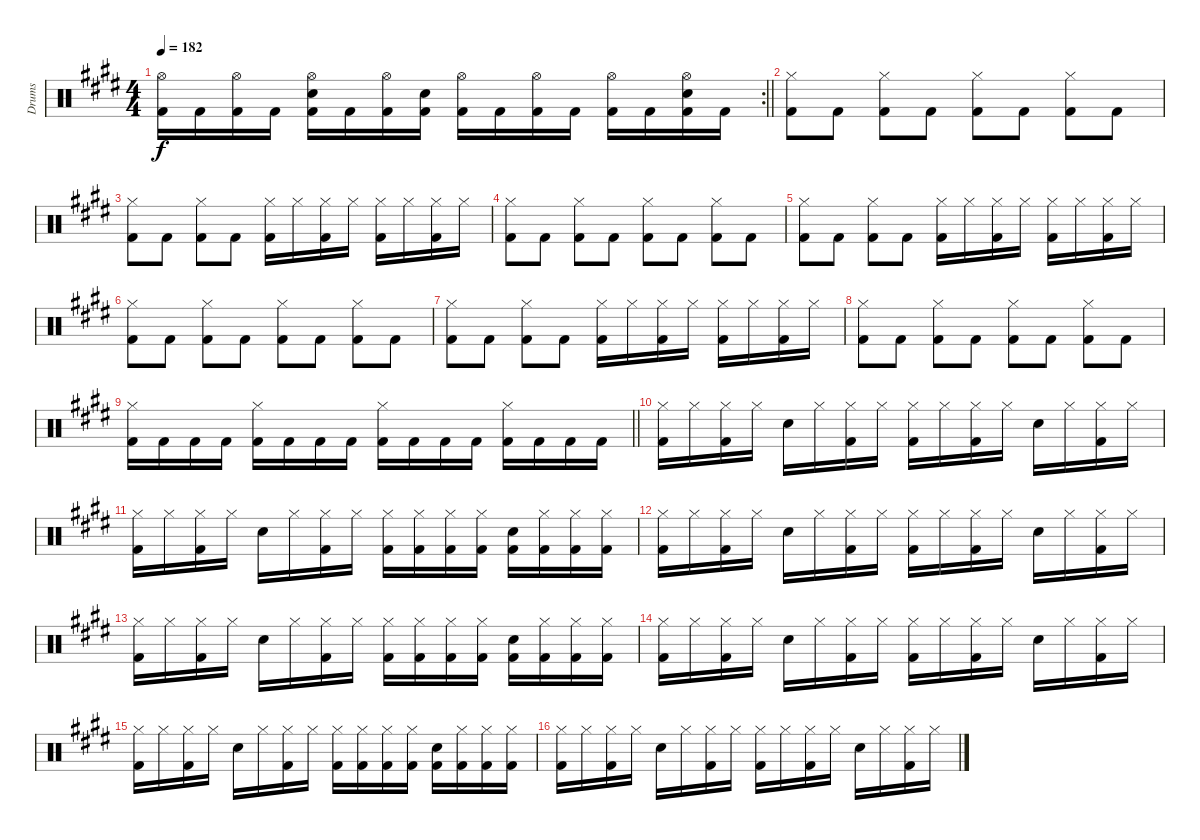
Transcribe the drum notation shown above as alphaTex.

\track ("Drums" "Drums") {instrument percussion}
\staff {score}
\articulation defaults
\rc 2
\ts (4 4)
\tempo 182
\clef neutral
\barLineRight lightlight
\ks c#minor
("Hi-Hat (open)" "Kick (hit) 2").16{dy f} "Kick (hit) 2".16 ("Hi-Hat (open)" "Kick (hit) 2").16 "Kick (hit) 2".16 ("Hi-Hat (open)" "Snare (hit) 2" "Kick (hit) 2").16 "Kick (hit) 2".16 ("Hi-Hat (open)" "Kick (hit) 2").16 ("Snare (hit) 2" "Kick (hit) 2").16 ("Hi-Hat (open)" "Kick (hit) 2").16 "Kick (hit) 2".16 ("Hi-Hat (open)" "Kick (hit) 2").16 "Kick (hit) 2".16 ("Hi-Hat (open)" "Kick (hit) 2").16 "Kick (hit) 2".16 ("Hi-Hat (open)" "Snare (hit) 2" "Kick (hit) 2").16 "Kick (hit) 2".16 |
("Hi-Hat (closed)" "Kick (hit) 2").8 "Kick (hit) 2".8 ("Hi-Hat (closed)" "Kick (hit) 2").8 "Kick (hit) 2".8 ("Hi-Hat (closed)" "Kick (hit) 2").8 "Kick (hit) 2".8 ("Hi-Hat (closed)" "Kick (hit) 2").8 "Kick (hit) 2".8 |
("Hi-Hat (closed)" "Kick (hit) 2").8 "Kick (hit) 2".8 ("Hi-Hat (closed)" "Kick (hit) 2").8 "Kick (hit) 2".8 ("Hi-Hat (closed)" "Kick (hit) 2").16 "Hi-Hat (closed)".16 ("Hi-Hat (closed)" "Kick (hit) 2").16 "Hi-Hat (closed)".16 ("Hi-Hat (closed)" "Kick (hit) 2").16 "Hi-Hat (closed)".16 ("Hi-Hat (closed)" "Kick (hit) 2").16 "Hi-Hat (closed)".16 |
("Hi-Hat (closed)" "Kick (hit) 2").8 "Kick (hit) 2".8 ("Hi-Hat (closed)" "Kick (hit) 2").8 "Kick (hit) 2".8 ("Hi-Hat (closed)" "Kick (hit) 2").8 "Kick (hit) 2".8 ("Hi-Hat (closed)" "Kick (hit) 2").8 "Kick (hit) 2".8 |
("Hi-Hat (closed)" "Kick (hit) 2").8 "Kick (hit) 2".8 ("Hi-Hat (closed)" "Kick (hit) 2").8 "Kick (hit) 2".8 ("Hi-Hat (closed)" "Kick (hit) 2").16 "Hi-Hat (closed)".16 ("Hi-Hat (closed)" "Kick (hit) 2").16 "Hi-Hat (closed)".16 ("Hi-Hat (closed)" "Kick (hit) 2").16 "Hi-Hat (closed)".16 ("Hi-Hat (closed)" "Kick (hit) 2").16 "Hi-Hat (closed)".16 |
("Hi-Hat (closed)" "Kick (hit) 2").8 "Kick (hit) 2".8 ("Hi-Hat (closed)" "Kick (hit) 2").8 "Kick (hit) 2".8 ("Hi-Hat (closed)" "Kick (hit) 2").8 "Kick (hit) 2".8 ("Hi-Hat (closed)" "Kick (hit) 2").8 "Kick (hit) 2".8 |
("Hi-Hat (closed)" "Kick (hit) 2").8 "Kick (hit) 2".8 ("Hi-Hat (closed)" "Kick (hit) 2").8 "Kick (hit) 2".8 ("Hi-Hat (closed)" "Kick (hit) 2").16 "Hi-Hat (closed)".16 ("Hi-Hat (closed)" "Kick (hit) 2").16 "Hi-Hat (closed)".16 ("Hi-Hat (closed)" "Kick (hit) 2").16 "Hi-Hat (closed)".16 ("Hi-Hat (closed)" "Kick (hit) 2").16 "Hi-Hat (closed)".16 |
("Hi-Hat (closed)" "Kick (hit) 2").8 "Kick (hit) 2".8 ("Hi-Hat (closed)" "Kick (hit) 2").8 "Kick (hit) 2".8 ("Hi-Hat (closed)" "Kick (hit) 2").8 "Kick (hit) 2".8 ("Hi-Hat (closed)" "Kick (hit) 2").8 "Kick (hit) 2".8 |
\barLineRight lightlight
("Hi-Hat (closed)" "Kick (hit) 2").16 "Kick (hit) 2".16 "Kick (hit) 2".16 "Kick (hit) 2".16 ("Hi-Hat (closed)" "Kick (hit) 2").16 "Kick (hit) 2".16 "Kick (hit) 2".16 "Kick (hit) 2".16 ("Hi-Hat (closed)" "Kick (hit) 2").16 "Kick (hit) 2".16 "Kick (hit) 2".16 "Kick (hit) 2".16 ("Hi-Hat (closed)" "Kick (hit) 2").16 "Kick (hit) 2".16 "Kick (hit) 2".16 "Kick (hit) 2".16 |
("Hi-Hat (closed)" "Kick (hit) 2").16 "Hi-Hat (closed)".16 ("Hi-Hat (closed)" "Kick (hit) 2").16 "Hi-Hat (closed)".16 "Snare (hit) 2".16 "Hi-Hat (closed)".16 ("Hi-Hat (closed)" "Kick (hit) 2").16 "Hi-Hat (closed)".16 ("Hi-Hat (closed)" "Kick (hit) 2").16 "Hi-Hat (closed)".16 ("Hi-Hat (closed)" "Kick (hit) 2").16 "Hi-Hat (closed)".16 "Snare (hit) 2".16 "Hi-Hat (closed)".16 ("Hi-Hat (closed)" "Kick (hit) 2").16 "Hi-Hat (closed)".16 |
("Hi-Hat (closed)" "Kick (hit) 2").16 "Hi-Hat (closed)".16 ("Hi-Hat (closed)" "Kick (hit) 2").16 "Hi-Hat (closed)".16 "Snare (hit) 2".16 "Hi-Hat (closed)".16 ("Hi-Hat (closed)" "Kick (hit) 2").16 "Hi-Hat (closed)".16 ("Hi-Hat (closed)" "Kick (hit) 2").16 ("Hi-Hat (closed)" "Kick (hit) 2").16 ("Hi-Hat (closed)" "Kick (hit) 2").16 ("Hi-Hat (closed)" "Kick (hit) 2").16 ("Snare (hit) 2" "Kick (hit) 2").16 ("Hi-Hat (closed)" "Kick (hit) 2").16 ("Hi-Hat (closed)" "Kick (hit) 2").16 ("Hi-Hat (closed)" "Kick (hit) 2").16 |
("Hi-Hat (closed)" "Kick (hit) 2").16 "Hi-Hat (closed)".16 ("Hi-Hat (closed)" "Kick (hit) 2").16 "Hi-Hat (closed)".16 "Snare (hit) 2".16 "Hi-Hat (closed)".16 ("Hi-Hat (closed)" "Kick (hit) 2").16 "Hi-Hat (closed)".16 ("Hi-Hat (closed)" "Kick (hit) 2").16 "Hi-Hat (closed)".16 ("Hi-Hat (closed)" "Kick (hit) 2").16 "Hi-Hat (closed)".16 "Snare (hit) 2".16 "Hi-Hat (closed)".16 ("Hi-Hat (closed)" "Kick (hit) 2").16 "Hi-Hat (closed)".16 |
("Hi-Hat (closed)" "Kick (hit) 2").16 "Hi-Hat (closed)".16 ("Hi-Hat (closed)" "Kick (hit) 2").16 "Hi-Hat (closed)".16 "Snare (hit) 2".16 "Hi-Hat (closed)".16 ("Hi-Hat (closed)" "Kick (hit) 2").16 "Hi-Hat (closed)".16 ("Hi-Hat (closed)" "Kick (hit) 2").16 ("Hi-Hat (closed)" "Kick (hit) 2").16 ("Hi-Hat (closed)" "Kick (hit) 2").16 ("Hi-Hat (closed)" "Kick (hit) 2").16 ("Snare (hit) 2" "Kick (hit) 2").16 ("Hi-Hat (closed)" "Kick (hit) 2").16 ("Hi-Hat (closed)" "Kick (hit) 2").16 ("Hi-Hat (closed)" "Kick (hit) 2").16 |
("Hi-Hat (closed)" "Kick (hit) 2").16 "Hi-Hat (closed)".16 ("Hi-Hat (closed)" "Kick (hit) 2").16 "Hi-Hat (closed)".16 "Snare (hit) 2".16 "Hi-Hat (closed)".16 ("Hi-Hat (closed)" "Kick (hit) 2").16 "Hi-Hat (closed)".16 ("Hi-Hat (closed)" "Kick (hit) 2").16 "Hi-Hat (closed)".16 ("Hi-Hat (closed)" "Kick (hit) 2").16 "Hi-Hat (closed)".16 "Snare (hit) 2".16 "Hi-Hat (closed)".16 ("Hi-Hat (closed)" "Kick (hit) 2").16 "Hi-Hat (closed)".16 |
("Hi-Hat (closed)" "Kick (hit) 2").16 "Hi-Hat (closed)".16 ("Hi-Hat (closed)" "Kick (hit) 2").16 "Hi-Hat (closed)".16 "Snare (hit) 2".16 "Hi-Hat (closed)".16 ("Hi-Hat (closed)" "Kick (hit) 2").16 "Hi-Hat (closed)".16 ("Hi-Hat (closed)" "Kick (hit) 2").16 ("Hi-Hat (closed)" "Kick (hit) 2").16 ("Hi-Hat (closed)" "Kick (hit) 2").16 ("Hi-Hat (closed)" "Kick (hit) 2").16 ("Snare (hit) 2" "Kick (hit) 2").16 ("Hi-Hat (closed)" "Kick (hit) 2").16 ("Hi-Hat (closed)" "Kick (hit) 2").16 ("Hi-Hat (closed)" "Kick (hit) 2").16 |
("Hi-Hat (closed)" "Kick (hit) 2").16 "Hi-Hat (closed)".16 ("Hi-Hat (closed)" "Kick (hit) 2").16 "Hi-Hat (closed)".16 "Snare (hit) 2".16 "Hi-Hat (closed)".16 ("Hi-Hat (closed)" "Kick (hit) 2").16 "Hi-Hat (closed)".16 ("Hi-Hat (closed)" "Kick (hit) 2").16 "Hi-Hat (closed)".16 ("Hi-Hat (closed)" "Kick (hit) 2").16 "Hi-Hat (closed)".16 "Snare (hit) 2".16 "Hi-Hat (closed)".16 ("Hi-Hat (closed)" "Kick (hit) 2").16 "Hi-Hat (closed)".16
